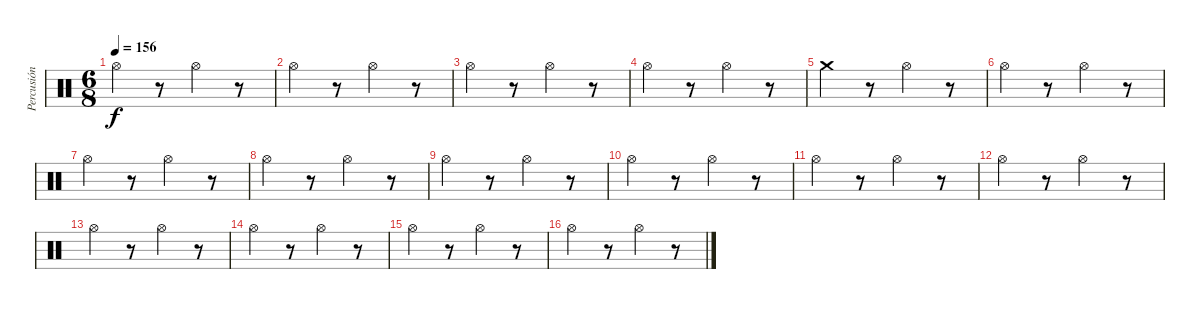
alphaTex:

\track ("Percusión" "Percusión") {instrument percussion}
\staff {score}
\articulation defaults
\ts (6 8)
\tempo 156
\clef neutral
\ks c "Hi-Hat (open)".4{dy f}
r.8 "Hi-Hat (open)".4 r.8 |
"Hi-Hat (open)".4 r.8 "Hi-Hat (open)".4 r.8 |
"Hi-Hat (open)".4 r.8 "Hi-Hat (open)".4 r.8 |
"Hi-Hat (open)".4 r.8 "Hi-Hat (open)".4 r.8 |
"Crash medium (hit)".4 r.8 "Hi-Hat (open)".4 r.8 |
"Hi-Hat (open)".4 r.8 "Hi-Hat (open)".4 r.8 |
"Hi-Hat (open)".4 r.8 "Hi-Hat (open)".4 r.8 |
"Hi-Hat (open)".4 r.8 "Hi-Hat (open)".4 r.8 |
"Hi-Hat (open)".4 r.8 "Hi-Hat (open)".4 r.8 |
"Hi-Hat (open)".4 r.8 "Hi-Hat (open)".4 r.8 |
"Hi-Hat (open)".4 r.8 "Hi-Hat (open)".4 r.8 |
"Hi-Hat (open)".4 r.8 "Hi-Hat (open)".4 r.8 |
"Hi-Hat (open)".4 r.8 "Hi-Hat (open)".4 r.8 |
"Hi-Hat (open)".4 r.8 "Hi-Hat (open)".4 r.8 |
"Hi-Hat (open)".4 r.8 "Hi-Hat (open)".4 r.8 |
"Hi-Hat (open)".4 r.8 "Hi-Hat (open)".4 r.8
